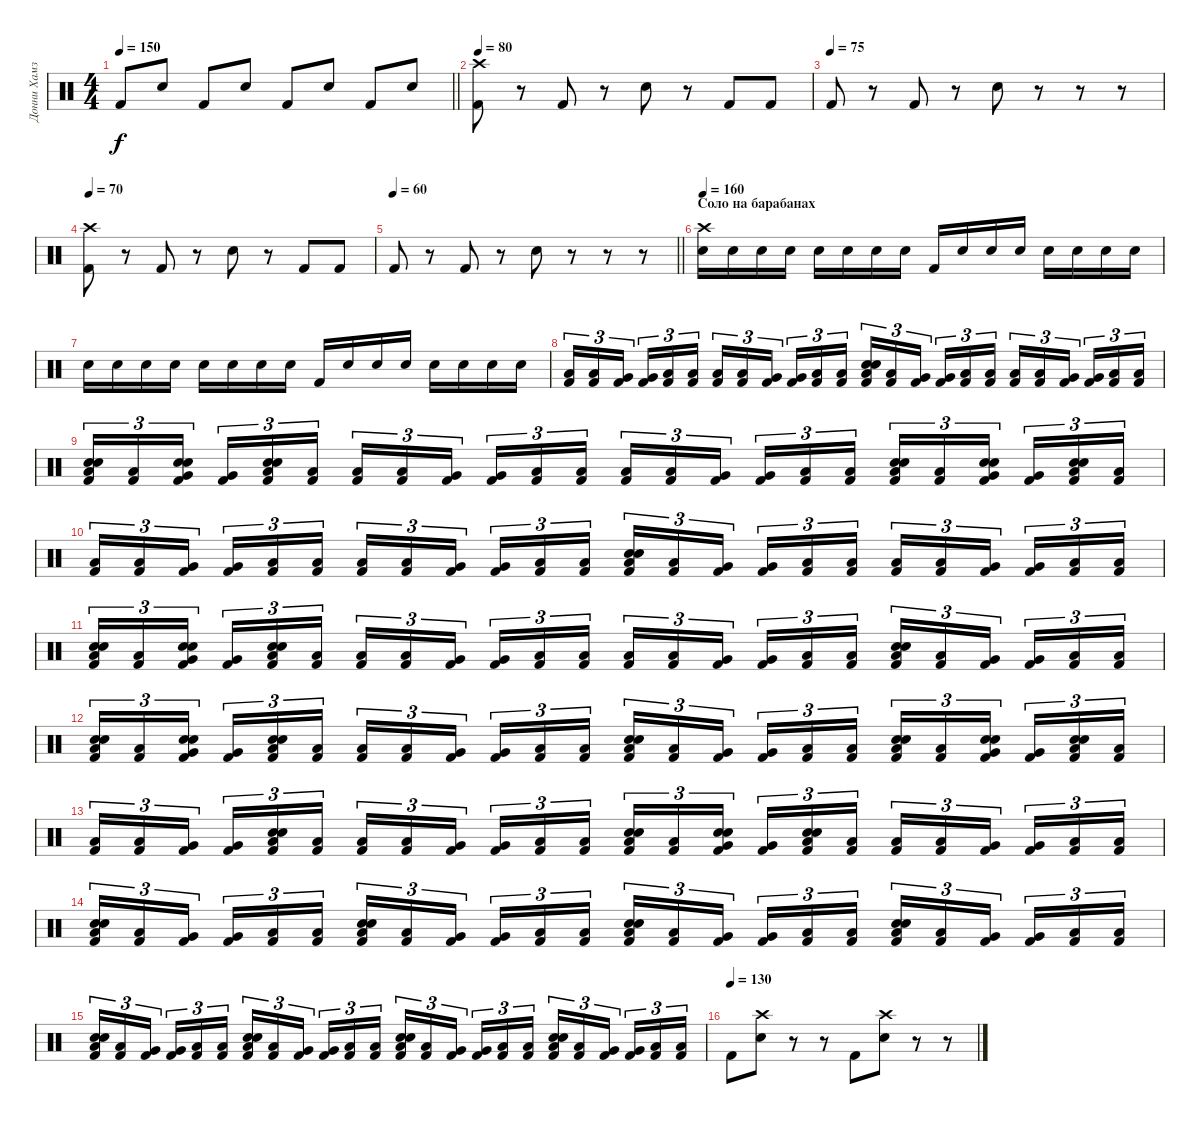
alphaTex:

\track ("Донни Хамзик" "Донни Хамз") {instrument percussion}
\staff {score}
\articulation defaults
\ts (4 4)
\tempo 150
\clef neutral
\barLineRight lightlight
\ks c "Kick (hit) 2".8{dy f} "Snare (hit) 2".8 "Kick (hit) 2".8 "Snare (hit) 2".8 "Kick (hit) 2".8 "Snare (hit) 2".8 "Kick (hit) 2".8 "Snare (hit) 2".8
|
\tempo 80
("Crash high (hit)" "Kick (hit) 2").8 r.8 "Kick (hit) 2".8 r.8 "Snare (hit) 2".8 r.8 "Kick (hit) 2".8 "Kick (hit) 2".8 |
\tempo (75)
"Kick (hit) 2".8 r.8 "Kick (hit) 2".8 r.8 "Snare (hit) 2".8 r.8 r.8 r.8 |
\tempo 70
("Crash high (hit)" "Kick (hit) 2").8 r.8 "Kick (hit) 2".8 r.8 "Snare (hit) 2".8 r.8 "Kick (hit) 2".8 "Kick (hit) 2".8 |
\tempo 60
\barLineRight lightlight "Kick (hit) 2".8
r.8 "Kick (hit) 2".8 r.8 "Snare (hit) 2".8 r.8 r.8 r.8 |
\section ("" "Соло на барабанах")
\tempo 160
("Crash high (hit)" "Snare (hit) 2").16 "Electric Snare (hit)".16 "Electric Snare (hit)".16 "Electric Snare (hit)".16 "Electric Snare (hit)".16 "Electric Snare (hit)".16 "Electric Snare (hit)".16 "Electric Snare (hit)".16 "Kick (hit) 2".16 "Electric Snare (hit)".16 "Electric Snare (hit)".16 "Electric Snare (hit)".16 "Electric Snare (hit)".16 "Electric Snare (hit)".16 "Electric Snare (hit)".16 "Electric Snare (hit)".16 |
"Electric Snare (hit)".16 "Electric Snare (hit)".16 "Electric Snare (hit)".16 "Electric Snare (hit)".16 "Electric Snare (hit)".16 "Electric Snare (hit)".16 "Electric Snare (hit)".16 "Electric Snare (hit)".16 "Kick (hit) 2".16 "Electric Snare (hit)".16 "Electric Snare (hit)".16 "Electric Snare (hit)".16 "Electric Snare (hit)".16 "Electric Snare (hit)".16 "Electric Snare (hit)".16 "Electric Snare (hit)".16 |
("Low Tom (hit)" "Kick (hit) 2").16{tu (3 2)} ("Low Tom (hit)" "Kick (hit) 2").16{tu (3 2)} ("Very Low Tom (hit)" "Kick (hit) 2").16{tu (3 2) beam splitsecondary} ("Very Low Tom (hit)" "Kick (hit) 2").16{tu (3 2)} ("Low Floor Tom (hit)" "Kick (hit) 2").16{tu (3 2)} ("Low Floor Tom (hit)" "Kick (hit) 2").16{tu (3 2)} ("Low Tom (hit)" "Kick (hit) 2").16{tu (3 2)} ("Low Tom (hit)" "Kick (hit) 2").16{tu (3 2)} ("Very Low Tom (hit)" "Kick (hit) 2").16{tu (3 2) beam splitsecondary} ("Very Low Tom (hit)" "Kick (hit) 2").16{tu (3 2)} ("Low Floor Tom (hit)" "Kick (hit) 2").16{tu (3 2)} ("Low Floor Tom (hit)" "Kick (hit) 2").16{tu (3 2)} ("Electric Snare (hit)" "Electric Snare (hit)" "Low Tom (hit)" "Kick (hit) 2").16{tu (3 2)} ("Low Tom (hit)" "Kick (hit) 2").16{tu (3 2)} ("Very Low Tom (hit)" "Kick (hit) 2").16{tu (3 2) beam splitsecondary} ("Very Low Tom (hit)" "Kick (hit) 2").16{tu (3 2)} ("Low Floor Tom (hit)" "Kick (hit) 2").16{tu (3 2)} ("Low Floor Tom (hit)" "Kick (hit) 2").16{tu (3 2)} ("Low Tom (hit)" "Kick (hit) 2").16{tu (3 2)} ("Low Tom (hit)" "Kick (hit) 2").16{tu (3 2)} ("Very Low Tom (hit)" "Kick (hit) 2").16{tu (3 2) beam splitsecondary} ("Very Low Tom (hit)" "Kick (hit) 2").16{tu (3 2)} ("Low Floor Tom (hit)" "Kick (hit) 2").16{tu (3 2)} ("Low Floor Tom (hit)" "Kick (hit) 2").16{tu (3 2)} |
("Electric Snare (hit)" "Electric Snare (hit)" "Low Tom (hit)" "Kick (hit) 2").16{tu (3 2)} ("Low Tom (hit)" "Kick (hit) 2").16{tu (3 2)} ("Electric Snare (hit)" "Electric Snare (hit)" "Very Low Tom (hit)" "Kick (hit) 2").16{tu (3 2) beam splitsecondary} ("Very Low Tom (hit)" "Kick (hit) 2").16{tu (3 2)} ("Electric Snare (hit)" "Electric Snare (hit)" "Low Floor Tom (hit)" "Kick (hit) 2").16{tu (3 2)} ("Low Floor Tom (hit)" "Kick (hit) 2").16{tu (3 2)} ("Low Tom (hit)" "Kick (hit) 2").16{tu (3 2)} ("Low Tom (hit)" "Kick (hit) 2").16{tu (3 2)} ("Very Low Tom (hit)" "Kick (hit) 2").16{tu (3 2) beam splitsecondary} ("Very Low Tom (hit)" "Kick (hit) 2").16{tu (3 2)} ("Low Floor Tom (hit)" "Kick (hit) 2").16{tu (3 2)} ("Low Floor Tom (hit)" "Kick (hit) 2").16{tu (3 2)} ("Low Tom (hit)" "Kick (hit) 2").16{tu (3 2)} ("Low Tom (hit)" "Kick (hit) 2").16{tu (3 2)} ("Very Low Tom (hit)" "Kick (hit) 2").16{tu (3 2) beam splitsecondary} ("Very Low Tom (hit)" "Kick (hit) 2").16{tu (3 2)} ("Low Floor Tom (hit)" "Kick (hit) 2").16{tu (3 2)} ("Low Floor Tom (hit)" "Kick (hit) 2").16{tu (3 2)} ("Electric Snare (hit)" "Electric Snare (hit)" "Low Tom (hit)" "Kick (hit) 2").16{tu (3 2)} ("Low Tom (hit)" "Kick (hit) 2").16{tu (3 2)} ("Electric Snare (hit)" "Electric Snare (hit)" "Very Low Tom (hit)" "Kick (hit) 2").16{tu (3 2) beam splitsecondary} ("Very Low Tom (hit)" "Kick (hit) 2").16{tu (3 2)} ("Electric Snare (hit)" "Electric Snare (hit)" "Low Floor Tom (hit)" "Kick (hit) 2").16{tu (3 2)} ("Low Floor Tom (hit)" "Kick (hit) 2").16{tu (3 2)} |
("Low Tom (hit)" "Kick (hit) 2").16{tu (3 2)} ("Low Tom (hit)" "Kick (hit) 2").16{tu (3 2)} ("Very Low Tom (hit)" "Kick (hit) 2").16{tu (3 2) beam splitsecondary} ("Very Low Tom (hit)" "Kick (hit) 2").16{tu (3 2)} ("Low Floor Tom (hit)" "Kick (hit) 2").16{tu (3 2)} ("Low Floor Tom (hit)" "Kick (hit) 2").16{tu (3 2)} ("Low Tom (hit)" "Kick (hit) 2").16{tu (3 2)} ("Low Tom (hit)" "Kick (hit) 2").16{tu (3 2)} ("Very Low Tom (hit)" "Kick (hit) 2").16{tu (3 2) beam splitsecondary} ("Very Low Tom (hit)" "Kick (hit) 2").16{tu (3 2)} ("Low Floor Tom (hit)" "Kick (hit) 2").16{tu (3 2)} ("Low Floor Tom (hit)" "Kick (hit) 2").16{tu (3 2)} ("Electric Snare (hit)" "Electric Snare (hit)" "Low Tom (hit)" "Kick (hit) 2").16{tu (3 2)} ("Low Tom (hit)" "Kick (hit) 2").16{tu (3 2)} ("Very Low Tom (hit)" "Kick (hit) 2").16{tu (3 2) beam splitsecondary} ("Very Low Tom (hit)" "Kick (hit) 2").16{tu (3 2)} ("Low Floor Tom (hit)" "Kick (hit) 2").16{tu (3 2)} ("Low Floor Tom (hit)" "Kick (hit) 2").16{tu (3 2)} ("Low Tom (hit)" "Kick (hit) 2").16{tu (3 2)} ("Low Tom (hit)" "Kick (hit) 2").16{tu (3 2)} ("Very Low Tom (hit)" "Kick (hit) 2").16{tu (3 2) beam splitsecondary} ("Very Low Tom (hit)" "Kick (hit) 2").16{tu (3 2)} ("Low Floor Tom (hit)" "Kick (hit) 2").16{tu (3 2)} ("Low Floor Tom (hit)" "Kick (hit) 2").16{tu (3 2)} |
("Electric Snare (hit)" "Electric Snare (hit)" "Low Tom (hit)" "Kick (hit) 2").16{tu (3 2)} ("Low Tom (hit)" "Kick (hit) 2").16{tu (3 2)} ("Electric Snare (hit)" "Electric Snare (hit)" "Very Low Tom (hit)" "Kick (hit) 2").16{tu (3 2) beam splitsecondary} ("Very Low Tom (hit)" "Kick (hit) 2").16{tu (3 2)} ("Electric Snare (hit)" "Electric Snare (hit)" "Low Floor Tom (hit)" "Kick (hit) 2").16{tu (3 2)} ("Low Floor Tom (hit)" "Kick (hit) 2").16{tu (3 2)} ("Low Tom (hit)" "Kick (hit) 2").16{tu (3 2)} ("Low Tom (hit)" "Kick (hit) 2").16{tu (3 2)} ("Very Low Tom (hit)" "Kick (hit) 2").16{tu (3 2) beam splitsecondary} ("Very Low Tom (hit)" "Kick (hit) 2").16{tu (3 2)} ("Low Floor Tom (hit)" "Kick (hit) 2").16{tu (3 2)} ("Low Floor Tom (hit)" "Kick (hit) 2").16{tu (3 2)} ("Low Tom (hit)" "Kick (hit) 2").16{tu (3 2)} ("Low Tom (hit)" "Kick (hit) 2").16{tu (3 2)} ("Very Low Tom (hit)" "Kick (hit) 2").16{tu (3 2) beam splitsecondary} ("Very Low Tom (hit)" "Kick (hit) 2").16{tu (3 2)} ("Low Floor Tom (hit)" "Kick (hit) 2").16{tu (3 2)} ("Low Floor Tom (hit)" "Kick (hit) 2").16{tu (3 2)} ("Electric Snare (hit)" "Electric Snare (hit)" "Low Tom (hit)" "Kick (hit) 2").16{tu (3 2)} ("Low Tom (hit)" "Kick (hit) 2").16{tu (3 2)} ("Very Low Tom (hit)" "Kick (hit) 2").16{tu (3 2) beam splitsecondary} ("Very Low Tom (hit)" "Kick (hit) 2").16{tu (3 2)} ("Low Floor Tom (hit)" "Kick (hit) 2").16{tu (3 2)} ("Low Floor Tom (hit)" "Kick (hit) 2").16{tu (3 2)} |
("Electric Snare (hit)" "Electric Snare (hit)" "Low Tom (hit)" "Kick (hit) 2").16{tu (3 2)} ("Low Tom (hit)" "Kick (hit) 2").16{tu (3 2)} ("Electric Snare (hit)" "Electric Snare (hit)" "Very Low Tom (hit)" "Kick (hit) 2").16{tu (3 2) beam splitsecondary} ("Very Low Tom (hit)" "Kick (hit) 2").16{tu (3 2)} ("Electric Snare (hit)" "Electric Snare (hit)" "Low Floor Tom (hit)" "Kick (hit) 2").16{tu (3 2)} ("Low Floor Tom (hit)" "Kick (hit) 2").16{tu (3 2)} ("Low Tom (hit)" "Kick (hit) 2").16{tu (3 2)} ("Low Tom (hit)" "Kick (hit) 2").16{tu (3 2)} ("Very Low Tom (hit)" "Kick (hit) 2").16{tu (3 2) beam splitsecondary} ("Very Low Tom (hit)" "Kick (hit) 2").16{tu (3 2)} ("Low Floor Tom (hit)" "Kick (hit) 2").16{tu (3 2)} ("Low Floor Tom (hit)" "Kick (hit) 2").16{tu (3 2)} ("Electric Snare (hit)" "Electric Snare (hit)" "Low Tom (hit)" "Kick (hit) 2").16{tu (3 2)} ("Low Tom (hit)" "Kick (hit) 2").16{tu (3 2)} ("Very Low Tom (hit)" "Kick (hit) 2").16{tu (3 2) beam splitsecondary} ("Very Low Tom (hit)" "Kick (hit) 2").16{tu (3 2)} ("Low Floor Tom (hit)" "Kick (hit) 2").16{tu (3 2)} ("Low Floor Tom (hit)" "Kick (hit) 2").16{tu (3 2)} ("Electric Snare (hit)" "Electric Snare (hit)" "Low Tom (hit)" "Kick (hit) 2").16{tu (3 2)} ("Low Tom (hit)" "Kick (hit) 2").16{tu (3 2)} ("Electric Snare (hit)" "Electric Snare (hit)" "Very Low Tom (hit)" "Kick (hit) 2").16{tu (3 2) beam splitsecondary} ("Very Low Tom (hit)" "Kick (hit) 2").16{tu (3 2)} ("Electric Snare (hit)" "Electric Snare (hit)" "Low Floor Tom (hit)" "Kick (hit) 2").16{tu (3 2)} ("Low Floor Tom (hit)" "Kick (hit) 2").16{tu (3 2)} |
("Low Tom (hit)" "Kick (hit) 2").16{tu (3 2)} ("Low Tom (hit)" "Kick (hit) 2").16{tu (3 2)} ("Very Low Tom (hit)" "Kick (hit) 2").16{tu (3 2) beam splitsecondary} ("Very Low Tom (hit)" "Kick (hit) 2").16{tu (3 2)} ("Electric Snare (hit)" "Electric Snare (hit)" "Low Floor Tom (hit)" "Kick (hit) 2").16{tu (3 2)} ("Low Floor Tom (hit)" "Kick (hit) 2").16{tu (3 2)} ("Low Tom (hit)" "Kick (hit) 2").16{tu (3 2)} ("Low Tom (hit)" "Kick (hit) 2").16{tu (3 2)} ("Very Low Tom (hit)" "Kick (hit) 2").16{tu (3 2) beam splitsecondary} ("Very Low Tom (hit)" "Kick (hit) 2").16{tu (3 2)} ("Low Floor Tom (hit)" "Kick (hit) 2").16{tu (3 2)} ("Low Floor Tom (hit)" "Kick (hit) 2").16{tu (3 2)} ("Electric Snare (hit)" "Electric Snare (hit)" "Low Tom (hit)" "Kick (hit) 2").16{tu (3 2)} ("Low Tom (hit)" "Kick (hit) 2").16{tu (3 2)} ("Electric Snare (hit)" "Electric Snare (hit)" "Very Low Tom (hit)" "Kick (hit) 2").16{tu (3 2) beam splitsecondary} ("Very Low Tom (hit)" "Kick (hit) 2").16{tu (3 2)} ("Electric Snare (hit)" "Electric Snare (hit)" "Low Floor Tom (hit)" "Kick (hit) 2").16{tu (3 2)} ("Low Floor Tom (hit)" "Kick (hit) 2").16{tu (3 2)} ("Low Tom (hit)" "Kick (hit) 2").16{tu (3 2)} ("Low Tom (hit)" "Kick (hit) 2").16{tu (3 2)} ("Very Low Tom (hit)" "Kick (hit) 2").16{tu (3 2) beam splitsecondary} ("Very Low Tom (hit)" "Kick (hit) 2").16{tu (3 2)} ("Low Floor Tom (hit)" "Kick (hit) 2").16{tu (3 2)} ("Low Floor Tom (hit)" "Kick (hit) 2").16{tu (3 2)} |
("Electric Snare (hit)" "Electric Snare (hit)" "Low Tom (hit)" "Kick (hit) 2").16{tu (3 2)} ("Low Tom (hit)" "Kick (hit) 2").16{tu (3 2)} ("Very Low Tom (hit)" "Kick (hit) 2").16{tu (3 2) beam splitsecondary} ("Very Low Tom (hit)" "Kick (hit) 2").16{tu (3 2)} ("Low Floor Tom (hit)" "Kick (hit) 2").16{tu (3 2)} ("Low Floor Tom (hit)" "Kick (hit) 2").16{tu (3 2)} ("Electric Snare (hit)" "Electric Snare (hit)" "Low Tom (hit)" "Kick (hit) 2").16{tu (3 2)} ("Low Tom (hit)" "Kick (hit) 2").16{tu (3 2)} ("Very Low Tom (hit)" "Kick (hit) 2").16{tu (3 2) beam splitsecondary} ("Very Low Tom (hit)" "Kick (hit) 2").16{tu (3 2)} ("Low Floor Tom (hit)" "Kick (hit) 2").16{tu (3 2)} ("Low Floor Tom (hit)" "Kick (hit) 2").16{tu (3 2)} ("Electric Snare (hit)" "Electric Snare (hit)" "Low Tom (hit)" "Kick (hit) 2").16{tu (3 2)} ("Low Tom (hit)" "Kick (hit) 2").16{tu (3 2)} ("Very Low Tom (hit)" "Kick (hit) 2").16{tu (3 2) beam splitsecondary} ("Very Low Tom (hit)" "Kick (hit) 2").16{tu (3 2)} ("Low Floor Tom (hit)" "Kick (hit) 2").16{tu (3 2)} ("Low Floor Tom (hit)" "Kick (hit) 2").16{tu (3 2)} ("Electric Snare (hit)" "Electric Snare (hit)" "Low Tom (hit)" "Kick (hit) 2").16{tu (3 2)} ("Low Tom (hit)" "Kick (hit) 2").16{tu (3 2)} ("Very Low Tom (hit)" "Kick (hit) 2").16{tu (3 2) beam splitsecondary} ("Very Low Tom (hit)" "Kick (hit) 2").16{tu (3 2)} ("Low Floor Tom (hit)" "Kick (hit) 2").16{tu (3 2)} ("Low Floor Tom (hit)" "Kick (hit) 2").16{tu (3 2)} |
("Electric Snare (hit)" "Electric Snare (hit)" "Low Tom (hit)" "Kick (hit) 2").16{tu (3 2)} ("Low Tom (hit)" "Kick (hit) 2").16{tu (3 2)} ("Very Low Tom (hit)" "Kick (hit) 2").16{tu (3 2) beam splitsecondary} ("Very Low Tom (hit)" "Kick (hit) 2").16{tu (3 2)} ("Low Floor Tom (hit)" "Kick (hit) 2").16{tu (3 2)} ("Low Floor Tom (hit)" "Kick (hit) 2").16{tu (3 2)} ("Electric Snare (hit)" "Electric Snare (hit)" "Low Tom (hit)" "Kick (hit) 2").16{tu (3 2)} ("Low Tom (hit)" "Kick (hit) 2").16{tu (3 2)} ("Very Low Tom (hit)" "Kick (hit) 2").16{tu (3 2) beam splitsecondary} ("Very Low Tom (hit)" "Kick (hit) 2").16{tu (3 2)} ("Low Floor Tom (hit)" "Kick (hit) 2").16{tu (3 2)} ("Low Floor Tom (hit)" "Kick (hit) 2").16{tu (3 2)} ("Electric Snare (hit)" "Electric Snare (hit)" "Low Tom (hit)" "Kick (hit) 2").16{tu (3 2)} ("Low Tom (hit)" "Kick (hit) 2").16{tu (3 2)} ("Very Low Tom (hit)" "Kick (hit) 2").16{tu (3 2) beam splitsecondary} ("Very Low Tom (hit)" "Kick (hit) 2").16{tu (3 2)} ("Low Floor Tom (hit)" "Kick (hit) 2").16{tu (3 2)} ("Low Floor Tom (hit)" "Kick (hit) 2").16{tu (3 2)} ("Electric Snare (hit)" "Electric Snare (hit)" "Low Tom (hit)" "Kick (hit) 2").16{tu (3 2)} ("Low Tom (hit)" "Kick (hit) 2").16{tu (3 2)} ("Very Low Tom (hit)" "Kick (hit) 2").16{tu (3 2) beam splitsecondary} ("Very Low Tom (hit)" "Kick (hit) 2").16{tu (3 2)} ("Low Floor Tom (hit)" "Kick (hit) 2").16{tu (3 2)} ("Low Floor Tom (hit)" "Kick (hit) 2").16{tu (3 2)} |
\tempo (130)
"Kick (hit) 2".8 ("Crash high (hit)" "Snare (hit) 2").8 r.8 r.8 "Kick (hit) 2".8 ("Crash high (hit)" "Snare (hit) 2").8 r.8 r.8
